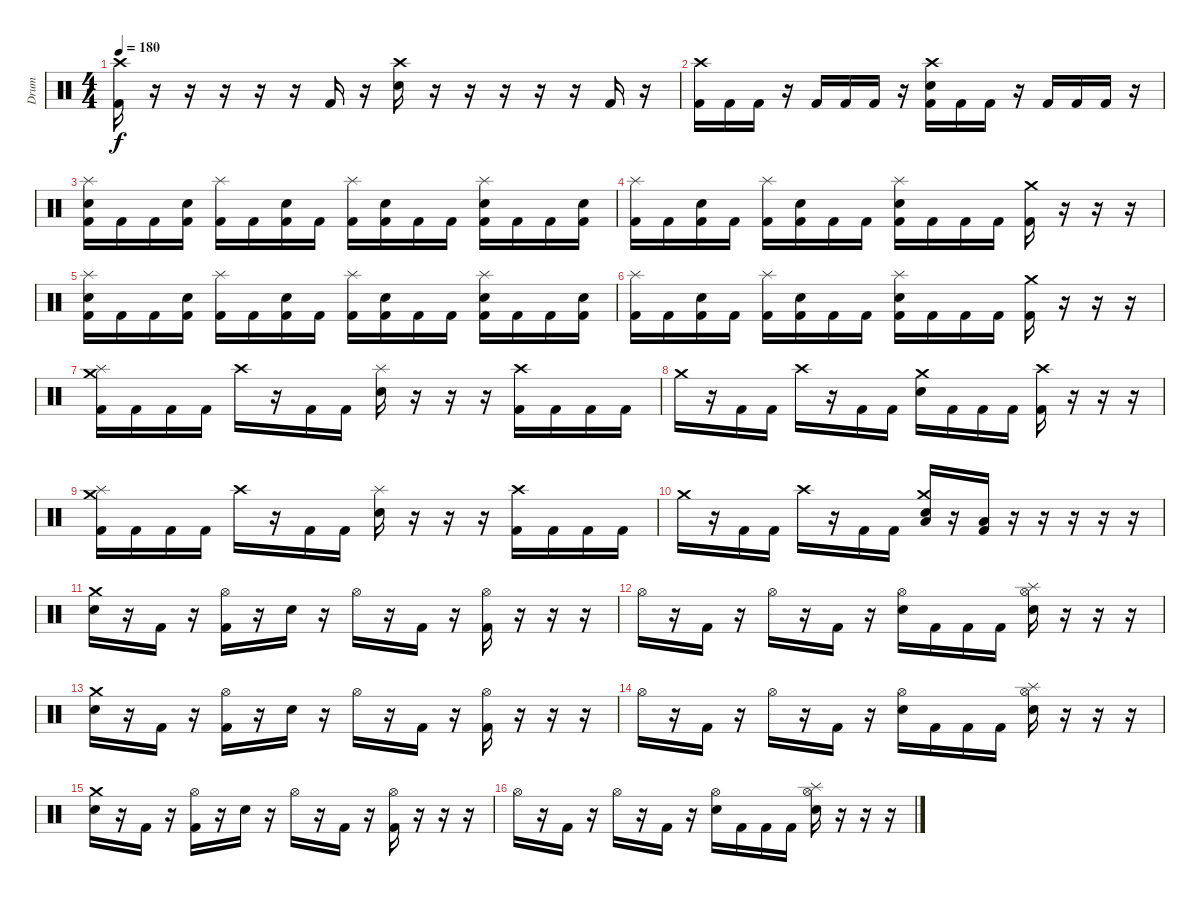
\track ("Drum" "Drum") {instrument percussion}
\staff {score}
\articulation defaults
\ts (4 4)
\tempo 180
\clef neutral
\ks c
("Crash high (hit)" "Kick (hit) 2").16{dy f} r.16 r.16 r.16 r.16 r.16 "Kick (hit) 2".16 r.16 ("Crash high (hit)" "Electric Snare (hit)").16 r.16 r.16 r.16 r.16 r.16 "Kick (hit) 2".16 r.16 |
("Crash high (hit)" "Kick (hit) 2").16 "Kick (hit) 2".16 "Kick (hit) 2".16 r.16 "Kick (hit) 2".16 "Kick (hit) 2".16 "Kick (hit) 2".16 r.16 ("Crash high (hit)" "Electric Snare (hit)" "Kick (hit) 2").16 "Kick (hit) 2".16 "Kick (hit) 2".16 r.16 "Kick (hit) 2".16 "Kick (hit) 2".16 "Kick (hit) 2".16 r.16 |
("Splash (hit)" "Electric Snare (hit)" "Kick (hit) 2").16 "Kick (hit) 2".16 "Kick (hit) 2".16 ("Electric Snare (hit)" "Kick (hit) 2").16 ("Splash (hit)" "Kick (hit) 2").16 "Kick (hit) 2".16 ("Electric Snare (hit)" "Kick (hit) 2").16 "Kick (hit) 2".16 ("Splash (hit)" "Kick (hit) 2").16 ("Electric Snare (hit)" "Kick (hit) 2").16 "Kick (hit) 2".16 "Kick (hit) 2".16 ("Splash (hit)" "Electric Snare (hit)" "Kick (hit) 2").16 "Kick (hit) 2".16 "Kick (hit) 2".16 ("Electric Snare (hit)" "Kick (hit) 2").16 |
("Splash (hit)" "Kick (hit) 2").16 "Kick (hit) 2".16 ("Electric Snare (hit)" "Kick (hit) 2").16 "Kick (hit) 2".16 ("Splash (hit)" "Kick (hit) 2").16 ("Electric Snare (hit)" "Kick (hit) 2").16 "Kick (hit) 2".16 "Kick (hit) 2".16 ("Splash (hit)" "Electric Snare (hit)" "Kick (hit) 2").16 "Kick (hit) 2".16 "Kick (hit) 2".16 "Kick (hit) 2".16 ("Crash medium (hit)" "Kick (hit) 2").16 r.16 r.16 r.16 |
("Splash (hit)" "Electric Snare (hit)" "Kick (hit) 2").16 "Kick (hit) 2".16 "Kick (hit) 2".16 ("Electric Snare (hit)" "Kick (hit) 2").16 ("Splash (hit)" "Kick (hit) 2").16 "Kick (hit) 2".16 ("Electric Snare (hit)" "Kick (hit) 2").16 "Kick (hit) 2".16 ("Splash (hit)" "Kick (hit) 2").16 ("Electric Snare (hit)" "Kick (hit) 2").16 "Kick (hit) 2".16 "Kick (hit) 2".16 ("Splash (hit)" "Electric Snare (hit)" "Kick (hit) 2").16 "Kick (hit) 2".16 "Kick (hit) 2".16 ("Electric Snare (hit)" "Kick (hit) 2").16 |
("Splash (hit)" "Kick (hit) 2").16 "Kick (hit) 2".16 ("Electric Snare (hit)" "Kick (hit) 2").16 "Kick (hit) 2".16 ("Splash (hit)" "Kick (hit) 2").16 ("Electric Snare (hit)" "Kick (hit) 2").16 "Kick (hit) 2".16 "Kick (hit) 2".16 ("Splash (hit)" "Electric Snare (hit)" "Kick (hit) 2").16 "Kick (hit) 2".16 "Kick (hit) 2".16 "Kick (hit) 2".16 ("Crash medium (hit)" "Kick (hit) 2").16 r.16 r.16 r.16 |
("Splash (hit)" "Crash medium (hit)" "Kick (hit) 2").16 "Kick (hit) 2".16 "Kick (hit) 2".16 "Kick (hit) 2".16 "Crash high (hit)".16 r.16 "Kick (hit) 2".16 "Kick (hit) 2".16 ("Splash (hit)" "Electric Snare (hit)").16 r.16 r.16 r.16 ("Crash high (hit)" "Kick (hit) 2").16 "Kick (hit) 2".16 "Kick (hit) 2".16 "Kick (hit) 2".16 |
"Crash medium (hit)".16 r.16 "Kick (hit) 2".16 "Kick (hit) 2".16 "Crash high (hit)".16 r.16 "Kick (hit) 2".16 "Kick (hit) 2".16 ("Crash medium (hit)" "Electric Snare (hit)").16 "Kick (hit) 2".16 "Kick (hit) 2".16 "Kick (hit) 2".16 ("Crash high (hit)" "Kick (hit) 2").16 r.16 r.16 r.16 |
("Splash (hit)" "Crash medium (hit)" "Kick (hit) 2").16 "Kick (hit) 2".16 "Kick (hit) 2".16 "Kick (hit) 2".16 "Crash high (hit)".16 r.16 "Kick (hit) 2".16 "Kick (hit) 2".16 ("Splash (hit)" "Electric Snare (hit)").16 r.16 r.16 r.16 ("Crash high (hit)" "Kick (hit) 2").16 "Kick (hit) 2".16 "Kick (hit) 2".16 "Kick (hit) 2".16 |
"Crash medium (hit)".16 r.16 "Kick (hit) 2".16 "Kick (hit) 2".16 "Crash high (hit)".16 r.16 "Kick (hit) 2".16 "Kick (hit) 2".16 ("Crash medium (hit)" "Electric Snare (hit)" "Low Floor Tom (hit)").16 r.16 ("Low Floor Tom (hit)" "Kick (hit) 2").16 r.16 r.16 r.16 r.16 r.16 |
("Crash medium (hit)" "Electric Snare (hit)").16 r.16 "Kick (hit) 2".16 r.16 ("Hi-Hat (open)" "Kick (hit) 2").16 r.16 "Electric Snare (hit)".16 r.16 "Hi-Hat (open)".16 r.16 "Kick (hit) 2".16 r.16 ("Hi-Hat (open)" "Kick (hit) 2").16 r.16 r.16 r.16 |
"Hi-Hat (open)".16 r.16 "Kick (hit) 2".16 r.16 "Hi-Hat (open)".16 r.16 "Kick (hit) 2".16 r.16 ("Hi-Hat (open)" "Electric Snare (hit)").16 "Kick (hit) 2".16 "Kick (hit) 2".16 "Kick (hit) 2".16 ("Hi-Hat (open)" "Splash (hit)" "Electric Snare (hit)").16 r.16 r.16 r.16 |
("Crash medium (hit)" "Electric Snare (hit)").16 r.16 "Kick (hit) 2".16 r.16 ("Hi-Hat (open)" "Kick (hit) 2").16 r.16 "Electric Snare (hit)".16 r.16 "Hi-Hat (open)".16 r.16 "Kick (hit) 2".16 r.16 ("Hi-Hat (open)" "Kick (hit) 2").16 r.16 r.16 r.16 |
"Hi-Hat (open)".16 r.16 "Kick (hit) 2".16 r.16 "Hi-Hat (open)".16 r.16 "Kick (hit) 2".16 r.16 ("Hi-Hat (open)" "Electric Snare (hit)").16 "Kick (hit) 2".16 "Kick (hit) 2".16 "Kick (hit) 2".16 ("Hi-Hat (open)" "Splash (hit)" "Electric Snare (hit)").16 r.16 r.16 r.16 |
("Crash medium (hit)" "Electric Snare (hit)").16 r.16 "Kick (hit) 2".16 r.16 ("Hi-Hat (open)" "Kick (hit) 2").16 r.16 "Electric Snare (hit)".16 r.16 "Hi-Hat (open)".16 r.16 "Kick (hit) 2".16 r.16 ("Hi-Hat (open)" "Kick (hit) 2").16 r.16 r.16 r.16 |
"Hi-Hat (open)".16 r.16 "Kick (hit) 2".16 r.16 "Hi-Hat (open)".16 r.16 "Kick (hit) 2".16 r.16 ("Hi-Hat (open)" "Electric Snare (hit)").16 "Kick (hit) 2".16 "Kick (hit) 2".16 "Kick (hit) 2".16 ("Hi-Hat (open)" "Splash (hit)" "Electric Snare (hit)").16 r.16 r.16 r.16
